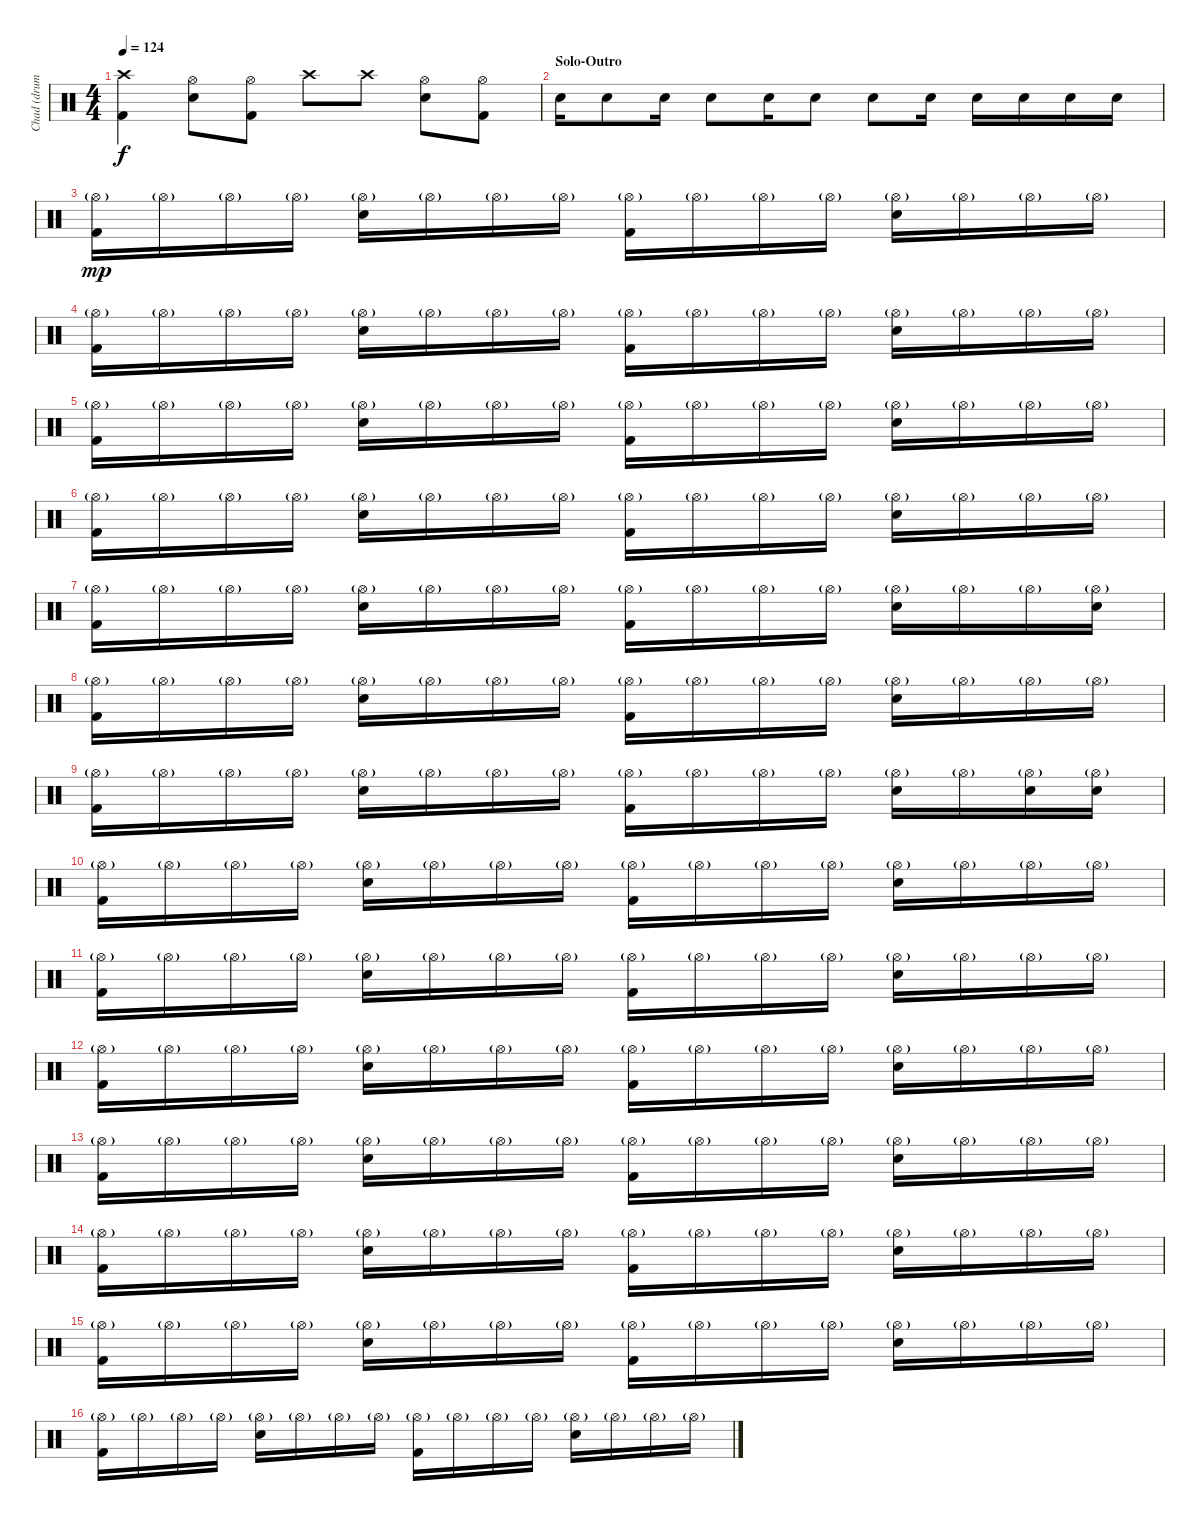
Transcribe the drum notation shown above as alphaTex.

\track ("Chad (drums)" "Chad (drum") {instrument percussion}
\staff {score}
\articulation defaults
\ts (4 4)
\tempo 124
\clef neutral
\ks c
("Kick (hit) 2" "Crash high (hit)").4{dy f} ("Electric Snare (hit)" "Hi-Hat (open)").8 ("Kick (hit) 2" "Hi-Hat (open)").8 "Crash high (hit)".8 "Crash high (hit)".8 ("Electric Snare (hit)" "Hi-Hat (open)").8 ("Kick (hit) 2" "Hi-Hat (open)").8 |
\section ("" "Solo-Outro")
"Electric Snare (hit)".16 "Electric Snare (hit)".8 "Electric Snare (hit)".16 "Electric Snare (hit)".8 "Electric Snare (hit)".16 "Electric Snare (hit)".8 "Electric Snare (hit)".8 "Electric Snare (hit)".16 "Electric Snare (hit)".16 "Electric Snare (hit)".16 "Electric Snare (hit)".16 "Electric Snare (hit)".16 |
("Kick (hit) 2" "Hi-Hat (open)"{g}).16{dy mp} "Hi-Hat (open)"{g}.16 "Hi-Hat (open)"{g}.16 "Hi-Hat (open)"{g}.16 ("Electric Snare (hit)" "Hi-Hat (open)"{g}).16 "Hi-Hat (open)"{g}.16 "Hi-Hat (open)"{g}.16 "Hi-Hat (open)"{g}.16 ("Kick (hit) 2" "Hi-Hat (open)"{g}).16 "Hi-Hat (open)"{g}.16 "Hi-Hat (open)"{g}.16 "Hi-Hat (open)"{g}.16 ("Electric Snare (hit)" "Hi-Hat (open)"{g}).16 "Hi-Hat (open)"{g}.16 "Hi-Hat (open)"{g}.16 "Hi-Hat (open)"{g}.16 |
("Kick (hit) 2" "Hi-Hat (open)"{g}).16 "Hi-Hat (open)"{g}.16 "Hi-Hat (open)"{g}.16 "Hi-Hat (open)"{g}.16 ("Electric Snare (hit)" "Hi-Hat (open)"{g}).16 "Hi-Hat (open)"{g}.16 "Hi-Hat (open)"{g}.16 "Hi-Hat (open)"{g}.16 ("Kick (hit) 2" "Hi-Hat (open)"{g}).16 "Hi-Hat (open)"{g}.16 "Hi-Hat (open)"{g}.16 "Hi-Hat (open)"{g}.16 ("Electric Snare (hit)" "Hi-Hat (open)"{g}).16 "Hi-Hat (open)"{g}.16 "Hi-Hat (open)"{g}.16 "Hi-Hat (open)"{g}.16 |
("Kick (hit) 2" "Hi-Hat (open)"{g}).16 "Hi-Hat (open)"{g}.16 "Hi-Hat (open)"{g}.16 "Hi-Hat (open)"{g}.16 ("Electric Snare (hit)" "Hi-Hat (open)"{g}).16 "Hi-Hat (open)"{g}.16 "Hi-Hat (open)"{g}.16 "Hi-Hat (open)"{g}.16 ("Kick (hit) 2" "Hi-Hat (open)"{g}).16 "Hi-Hat (open)"{g}.16 "Hi-Hat (open)"{g}.16 "Hi-Hat (open)"{g}.16 ("Electric Snare (hit)" "Hi-Hat (open)"{g}).16 "Hi-Hat (open)"{g}.16 "Hi-Hat (open)"{g}.16 "Hi-Hat (open)"{g}.16 |
("Kick (hit) 2" "Hi-Hat (open)"{g}).16 "Hi-Hat (open)"{g}.16 "Hi-Hat (open)"{g}.16 "Hi-Hat (open)"{g}.16 ("Electric Snare (hit)" "Hi-Hat (open)"{g}).16 "Hi-Hat (open)"{g}.16 "Hi-Hat (open)"{g}.16 "Hi-Hat (open)"{g}.16 ("Kick (hit) 2" "Hi-Hat (open)"{g}).16 "Hi-Hat (open)"{g}.16 "Hi-Hat (open)"{g}.16 "Hi-Hat (open)"{g}.16 ("Electric Snare (hit)" "Hi-Hat (open)"{g}).16 "Hi-Hat (open)"{g}.16 "Hi-Hat (open)"{g}.16 "Hi-Hat (open)"{g}.16 |
("Kick (hit) 2" "Hi-Hat (open)"{g}).16 "Hi-Hat (open)"{g}.16 "Hi-Hat (open)"{g}.16 "Hi-Hat (open)"{g}.16 ("Electric Snare (hit)" "Hi-Hat (open)"{g}).16 "Hi-Hat (open)"{g}.16 "Hi-Hat (open)"{g}.16 "Hi-Hat (open)"{g}.16 ("Kick (hit) 2" "Hi-Hat (open)"{g}).16 "Hi-Hat (open)"{g}.16 "Hi-Hat (open)"{g}.16 "Hi-Hat (open)"{g}.16 ("Electric Snare (hit)" "Hi-Hat (open)"{g}).16 "Hi-Hat (open)"{g}.16 "Hi-Hat (open)"{g}.16 ("Electric Snare (hit)" "Hi-Hat (open)"{g}).16 |
("Kick (hit) 2" "Hi-Hat (open)"{g}).16 "Hi-Hat (open)"{g}.16 "Hi-Hat (open)"{g}.16 "Hi-Hat (open)"{g}.16 ("Electric Snare (hit)" "Hi-Hat (open)"{g}).16 "Hi-Hat (open)"{g}.16 "Hi-Hat (open)"{g}.16 "Hi-Hat (open)"{g}.16 ("Kick (hit) 2" "Hi-Hat (open)"{g}).16 "Hi-Hat (open)"{g}.16 "Hi-Hat (open)"{g}.16 "Hi-Hat (open)"{g}.16 ("Electric Snare (hit)" "Hi-Hat (open)"{g}).16 "Hi-Hat (open)"{g}.16 "Hi-Hat (open)"{g}.16 "Hi-Hat (open)"{g}.16 |
("Kick (hit) 2" "Hi-Hat (open)"{g}).16 "Hi-Hat (open)"{g}.16 "Hi-Hat (open)"{g}.16 "Hi-Hat (open)"{g}.16 ("Electric Snare (hit)" "Hi-Hat (open)"{g}).16 "Hi-Hat (open)"{g}.16 "Hi-Hat (open)"{g}.16 "Hi-Hat (open)"{g}.16 ("Kick (hit) 2" "Hi-Hat (open)"{g}).16 "Hi-Hat (open)"{g}.16 "Hi-Hat (open)"{g}.16 "Hi-Hat (open)"{g}.16 ("Electric Snare (hit)" "Hi-Hat (open)"{g}).16 "Hi-Hat (open)"{g}.16 ("Electric Snare (hit)" "Hi-Hat (open)"{g}).16 ("Electric Snare (hit)" "Hi-Hat (open)"{g}).16 |
("Kick (hit) 2" "Hi-Hat (open)"{g}).16 "Hi-Hat (open)"{g}.16 "Hi-Hat (open)"{g}.16 "Hi-Hat (open)"{g}.16 ("Electric Snare (hit)" "Hi-Hat (open)"{g}).16 "Hi-Hat (open)"{g}.16 "Hi-Hat (open)"{g}.16 "Hi-Hat (open)"{g}.16 ("Kick (hit) 2" "Hi-Hat (open)"{g}).16 "Hi-Hat (open)"{g}.16 "Hi-Hat (open)"{g}.16 "Hi-Hat (open)"{g}.16 ("Electric Snare (hit)" "Hi-Hat (open)"{g}).16 "Hi-Hat (open)"{g}.16 "Hi-Hat (open)"{g}.16 "Hi-Hat (open)"{g}.16 |
("Kick (hit) 2" "Hi-Hat (open)"{g}).16 "Hi-Hat (open)"{g}.16 "Hi-Hat (open)"{g}.16 "Hi-Hat (open)"{g}.16 ("Electric Snare (hit)" "Hi-Hat (open)"{g}).16 "Hi-Hat (open)"{g}.16 "Hi-Hat (open)"{g}.16 "Hi-Hat (open)"{g}.16 ("Kick (hit) 2" "Hi-Hat (open)"{g}).16 "Hi-Hat (open)"{g}.16 "Hi-Hat (open)"{g}.16 "Hi-Hat (open)"{g}.16 ("Electric Snare (hit)" "Hi-Hat (open)"{g}).16 "Hi-Hat (open)"{g}.16 "Hi-Hat (open)"{g}.16 "Hi-Hat (open)"{g}.16 |
("Kick (hit) 2" "Hi-Hat (open)"{g}).16 "Hi-Hat (open)"{g}.16 "Hi-Hat (open)"{g}.16 "Hi-Hat (open)"{g}.16 ("Electric Snare (hit)" "Hi-Hat (open)"{g}).16 "Hi-Hat (open)"{g}.16 "Hi-Hat (open)"{g}.16 "Hi-Hat (open)"{g}.16 ("Kick (hit) 2" "Hi-Hat (open)"{g}).16 "Hi-Hat (open)"{g}.16 "Hi-Hat (open)"{g}.16 "Hi-Hat (open)"{g}.16 ("Electric Snare (hit)" "Hi-Hat (open)"{g}).16 "Hi-Hat (open)"{g}.16 "Hi-Hat (open)"{g}.16 "Hi-Hat (open)"{g}.16 |
("Kick (hit) 2" "Hi-Hat (open)"{g}).16 "Hi-Hat (open)"{g}.16 "Hi-Hat (open)"{g}.16 "Hi-Hat (open)"{g}.16 ("Electric Snare (hit)" "Hi-Hat (open)"{g}).16 "Hi-Hat (open)"{g}.16 "Hi-Hat (open)"{g}.16 "Hi-Hat (open)"{g}.16 ("Kick (hit) 2" "Hi-Hat (open)"{g}).16 "Hi-Hat (open)"{g}.16 "Hi-Hat (open)"{g}.16 "Hi-Hat (open)"{g}.16 ("Electric Snare (hit)" "Hi-Hat (open)"{g}).16 "Hi-Hat (open)"{g}.16 "Hi-Hat (open)"{g}.16 "Hi-Hat (open)"{g}.16 |
("Kick (hit) 2" "Hi-Hat (open)"{g}).16 "Hi-Hat (open)"{g}.16 "Hi-Hat (open)"{g}.16 "Hi-Hat (open)"{g}.16 ("Electric Snare (hit)" "Hi-Hat (open)"{g}).16 "Hi-Hat (open)"{g}.16 "Hi-Hat (open)"{g}.16 "Hi-Hat (open)"{g}.16 ("Kick (hit) 2" "Hi-Hat (open)"{g}).16 "Hi-Hat (open)"{g}.16 "Hi-Hat (open)"{g}.16 "Hi-Hat (open)"{g}.16 ("Electric Snare (hit)" "Hi-Hat (open)"{g}).16 "Hi-Hat (open)"{g}.16 "Hi-Hat (open)"{g}.16 "Hi-Hat (open)"{g}.16 |
("Kick (hit) 2" "Hi-Hat (open)"{g}).16 "Hi-Hat (open)"{g}.16 "Hi-Hat (open)"{g}.16 "Hi-Hat (open)"{g}.16 ("Electric Snare (hit)" "Hi-Hat (open)"{g}).16 "Hi-Hat (open)"{g}.16 "Hi-Hat (open)"{g}.16 "Hi-Hat (open)"{g}.16 ("Kick (hit) 2" "Hi-Hat (open)"{g}).16 "Hi-Hat (open)"{g}.16 "Hi-Hat (open)"{g}.16 "Hi-Hat (open)"{g}.16 ("Electric Snare (hit)" "Hi-Hat (open)"{g}).16 "Hi-Hat (open)"{g}.16 "Hi-Hat (open)"{g}.16 "Hi-Hat (open)"{g}.16 |
("Kick (hit) 2" "Hi-Hat (open)"{g}).16 "Hi-Hat (open)"{g}.16 "Hi-Hat (open)"{g}.16 "Hi-Hat (open)"{g}.16 ("Electric Snare (hit)" "Hi-Hat (open)"{g}).16 "Hi-Hat (open)"{g}.16 "Hi-Hat (open)"{g}.16 "Hi-Hat (open)"{g}.16 ("Kick (hit) 2" "Hi-Hat (open)"{g}).16 "Hi-Hat (open)"{g}.16 "Hi-Hat (open)"{g}.16 "Hi-Hat (open)"{g}.16 ("Electric Snare (hit)" "Hi-Hat (open)"{g}).16 "Hi-Hat (open)"{g}.16 "Hi-Hat (open)"{g}.16 "Hi-Hat (open)"{g}.16
